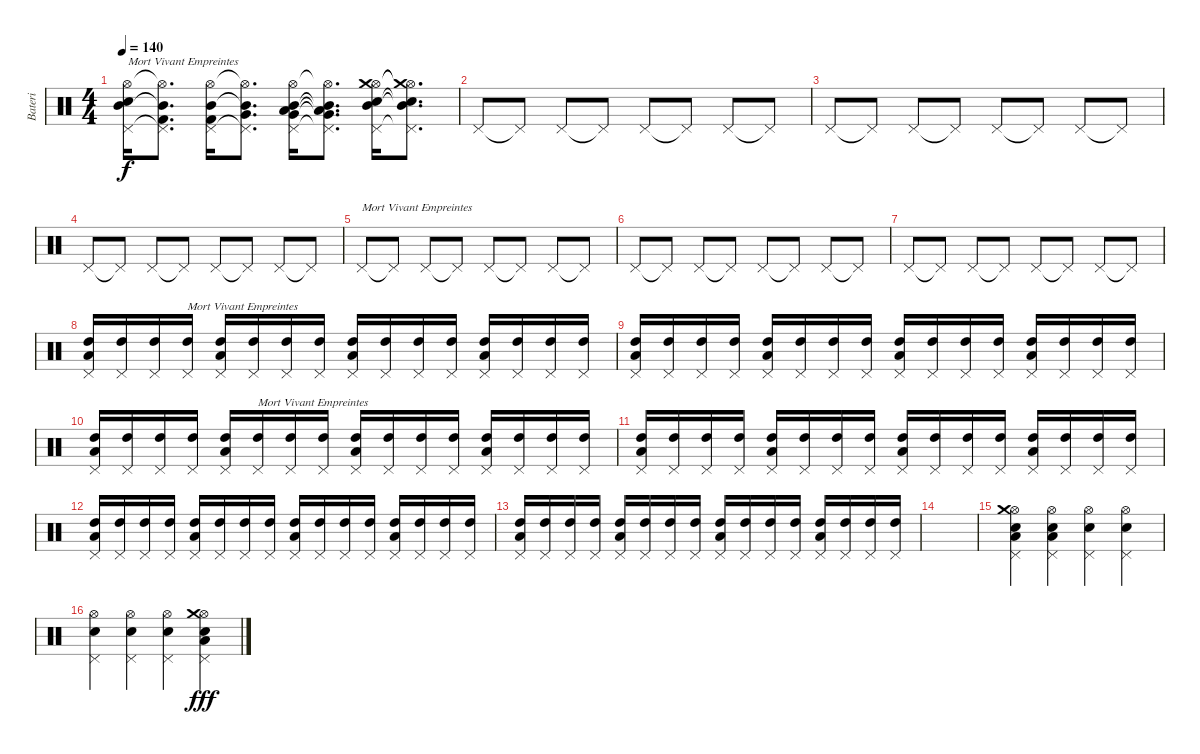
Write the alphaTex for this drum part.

\track ("Bateri" "Bateri") {instrument percussion}
\staff {score}
\articulation defaults
\ts (4 4)
\tempo 140
\clef neutral
\ks c
("Hi-Hat (open)" "Snare (hit) 2" "Mid Tom (hit)" "Pedal Hi-Hat (hit)").16{txt "Mort Vivant Empreintes" dy f} ("Hi-Hat (open)"{t} "Kick (hit) 2" "Mid Tom (hit)"{t} "Pedal Hi-Hat (hit)"{t}).8{d} ("Hi-Hat (open)" "Kick (hit) 2" "Mid Tom (hit)" "Pedal Hi-Hat (hit)").16{beam merge} ("Hi-Hat (open)"{t} "Very Low Tom (hit)" "Mid Tom (hit)"{t} "Pedal Hi-Hat (hit)"{t}).8{d} ("Hi-Hat (open)" "Very Low Tom (hit)" "Mid Tom (hit)" "Low Tom (hit)" "Pedal Hi-Hat (hit)").16{beam merge} ("Hi-Hat (open)"{t} "Very Low Tom (hit)"{t} "Mid Tom (hit)"{t} "Low Tom (hit)"{t} "Pedal Hi-Hat (hit)"{t}).8{d} ("Hi-Hat (open)" "Snare (hit) 2" "Mid Tom (hit)" "Crash medium (hit)" "Pedal Hi-Hat (hit)").16{beam merge} ("Hi-Hat (open)"{t} "Snare (hit) 2"{t} "Mid Tom (hit)"{t} "Crash medium (hit)"{t} "Pedal Hi-Hat (hit)"{t}).8{d} |
"Pedal Hi-Hat (hit)".8 "Pedal Hi-Hat (hit)"{t}.8 "Pedal Hi-Hat (hit)".8 "Pedal Hi-Hat (hit)"{t}.8 "Pedal Hi-Hat (hit)".8 "Pedal Hi-Hat (hit)"{t}.8 "Pedal Hi-Hat (hit)".8 "Pedal Hi-Hat (hit)"{t}.8 |
"Pedal Hi-Hat (hit)".8 "Pedal Hi-Hat (hit)"{t}.8 "Pedal Hi-Hat (hit)".8 "Pedal Hi-Hat (hit)"{t}.8 "Pedal Hi-Hat (hit)".8 "Pedal Hi-Hat (hit)"{t}.8 "Pedal Hi-Hat (hit)".8 "Pedal Hi-Hat (hit)"{t}.8 |
"Pedal Hi-Hat (hit)".8 "Pedal Hi-Hat (hit)"{t}.8 "Pedal Hi-Hat (hit)".8 "Pedal Hi-Hat (hit)"{t}.8 "Pedal Hi-Hat (hit)".8 "Pedal Hi-Hat (hit)"{t}.8 "Pedal Hi-Hat (hit)".8 "Pedal Hi-Hat (hit)"{t}.8 |
"Pedal Hi-Hat (hit)".8{txt "Mort Vivant Empreintes"} "Pedal Hi-Hat (hit)"{t}.8 "Pedal Hi-Hat (hit)".8 "Pedal Hi-Hat (hit)"{t}.8 "Pedal Hi-Hat (hit)".8 "Pedal Hi-Hat (hit)"{t}.8 "Pedal Hi-Hat (hit)".8 "Pedal Hi-Hat (hit)"{t}.8 |
"Pedal Hi-Hat (hit)".8 "Pedal Hi-Hat (hit)"{t}.8 "Pedal Hi-Hat (hit)".8 "Pedal Hi-Hat (hit)"{t}.8 "Pedal Hi-Hat (hit)".8 "Pedal Hi-Hat (hit)"{t}.8 "Pedal Hi-Hat (hit)".8 "Pedal Hi-Hat (hit)"{t}.8 |
"Pedal Hi-Hat (hit)".8 "Pedal Hi-Hat (hit)"{t}.8 "Pedal Hi-Hat (hit)".8 "Pedal Hi-Hat (hit)"{t}.8 "Pedal Hi-Hat (hit)".8 "Pedal Hi-Hat (hit)"{t}.8 "Pedal Hi-Hat (hit)".8 "Pedal Hi-Hat (hit)"{t}.8 |
("High Tom (hit)" "Low Tom (hit)" "Pedal Hi-Hat (hit)").16 ("High Tom (hit)" "Pedal Hi-Hat (hit)").16 ("High Tom (hit)" "Pedal Hi-Hat (hit)").16 ("High Tom (hit)" "Pedal Hi-Hat (hit)").16{txt "Mort Vivant Empreintes"} ("High Tom (hit)" "Low Tom (hit)" "Pedal Hi-Hat (hit)").16 ("High Tom (hit)" "Pedal Hi-Hat (hit)").16 ("High Tom (hit)" "Pedal Hi-Hat (hit)").16 ("High Tom (hit)" "Pedal Hi-Hat (hit)").16 ("High Tom (hit)" "Low Tom (hit)" "Pedal Hi-Hat (hit)").16 ("High Tom (hit)" "Pedal Hi-Hat (hit)").16 ("High Tom (hit)" "Pedal Hi-Hat (hit)").16 ("High Tom (hit)" "Pedal Hi-Hat (hit)").16 ("High Tom (hit)" "Low Tom (hit)" "Pedal Hi-Hat (hit)").16 ("High Tom (hit)" "Pedal Hi-Hat (hit)").16 ("High Tom (hit)" "Pedal Hi-Hat (hit)").16 ("High Tom (hit)" "Pedal Hi-Hat (hit)").16 |
("High Tom (hit)" "Low Tom (hit)" "Pedal Hi-Hat (hit)").16 ("High Tom (hit)" "Pedal Hi-Hat (hit)").16 ("High Tom (hit)" "Pedal Hi-Hat (hit)").16 ("High Tom (hit)" "Pedal Hi-Hat (hit)").16 ("High Tom (hit)" "Low Tom (hit)" "Pedal Hi-Hat (hit)").16 ("High Tom (hit)" "Pedal Hi-Hat (hit)").16 ("High Tom (hit)" "Pedal Hi-Hat (hit)").16 ("High Tom (hit)" "Pedal Hi-Hat (hit)").16 ("High Tom (hit)" "Low Tom (hit)" "Pedal Hi-Hat (hit)").16 ("High Tom (hit)" "Pedal Hi-Hat (hit)").16 ("High Tom (hit)" "Pedal Hi-Hat (hit)").16 ("High Tom (hit)" "Pedal Hi-Hat (hit)").16 ("High Tom (hit)" "Low Tom (hit)" "Pedal Hi-Hat (hit)").16 ("High Tom (hit)" "Pedal Hi-Hat (hit)").16 ("High Tom (hit)" "Pedal Hi-Hat (hit)").16 ("High Tom (hit)" "Pedal Hi-Hat (hit)").16 |
("High Tom (hit)" "Low Tom (hit)" "Pedal Hi-Hat (hit)").16 ("High Tom (hit)" "Pedal Hi-Hat (hit)").16 ("High Tom (hit)" "Pedal Hi-Hat (hit)").16 ("High Tom (hit)" "Pedal Hi-Hat (hit)").16 ("High Tom (hit)" "Low Tom (hit)" "Pedal Hi-Hat (hit)").16 ("High Tom (hit)" "Pedal Hi-Hat (hit)").16{txt "Mort Vivant Empreintes"} ("High Tom (hit)" "Pedal Hi-Hat (hit)").16 ("High Tom (hit)" "Pedal Hi-Hat (hit)").16 ("High Tom (hit)" "Low Tom (hit)" "Pedal Hi-Hat (hit)").16 ("High Tom (hit)" "Pedal Hi-Hat (hit)").16 ("High Tom (hit)" "Pedal Hi-Hat (hit)").16 ("High Tom (hit)" "Pedal Hi-Hat (hit)").16 ("High Tom (hit)" "Low Tom (hit)" "Pedal Hi-Hat (hit)").16 ("High Tom (hit)" "Pedal Hi-Hat (hit)").16 ("High Tom (hit)" "Pedal Hi-Hat (hit)").16 ("High Tom (hit)" "Pedal Hi-Hat (hit)").16 |
("High Tom (hit)" "Low Tom (hit)" "Pedal Hi-Hat (hit)").16 ("High Tom (hit)" "Pedal Hi-Hat (hit)").16 ("High Tom (hit)" "Pedal Hi-Hat (hit)").16 ("High Tom (hit)" "Pedal Hi-Hat (hit)").16 ("High Tom (hit)" "Low Tom (hit)" "Pedal Hi-Hat (hit)").16 ("High Tom (hit)" "Pedal Hi-Hat (hit)").16 ("High Tom (hit)" "Pedal Hi-Hat (hit)").16 ("High Tom (hit)" "Pedal Hi-Hat (hit)").16 ("High Tom (hit)" "Low Tom (hit)" "Pedal Hi-Hat (hit)").16 ("High Tom (hit)" "Pedal Hi-Hat (hit)").16 ("High Tom (hit)" "Pedal Hi-Hat (hit)").16 ("High Tom (hit)" "Pedal Hi-Hat (hit)").16 ("High Tom (hit)" "Low Tom (hit)" "Pedal Hi-Hat (hit)").16 ("High Tom (hit)" "Pedal Hi-Hat (hit)").16 ("High Tom (hit)" "Pedal Hi-Hat (hit)").16 ("High Tom (hit)" "Pedal Hi-Hat (hit)").16 |
("High Tom (hit)" "Low Tom (hit)" "Pedal Hi-Hat (hit)").16 ("High Tom (hit)" "Pedal Hi-Hat (hit)").16 ("High Tom (hit)" "Pedal Hi-Hat (hit)").16 ("High Tom (hit)" "Pedal Hi-Hat (hit)").16 ("High Tom (hit)" "Low Tom (hit)" "Pedal Hi-Hat (hit)").16 ("High Tom (hit)" "Pedal Hi-Hat (hit)").16 ("High Tom (hit)" "Pedal Hi-Hat (hit)").16 ("High Tom (hit)" "Pedal Hi-Hat (hit)").16 ("High Tom (hit)" "Low Tom (hit)" "Pedal Hi-Hat (hit)").16 ("High Tom (hit)" "Pedal Hi-Hat (hit)").16 ("High Tom (hit)" "Pedal Hi-Hat (hit)").16 ("High Tom (hit)" "Pedal Hi-Hat (hit)").16 ("High Tom (hit)" "Low Tom (hit)" "Pedal Hi-Hat (hit)").16 ("High Tom (hit)" "Pedal Hi-Hat (hit)").16 ("High Tom (hit)" "Pedal Hi-Hat (hit)").16 ("High Tom (hit)" "Pedal Hi-Hat (hit)").16 |
("High Tom (hit)" "Low Tom (hit)" "Pedal Hi-Hat (hit)").16 ("High Tom (hit)" "Pedal Hi-Hat (hit)").16 ("High Tom (hit)" "Pedal Hi-Hat (hit)").16 ("High Tom (hit)" "Pedal Hi-Hat (hit)").16 ("High Tom (hit)" "Low Tom (hit)" "Pedal Hi-Hat (hit)").16 ("High Tom (hit)" "Pedal Hi-Hat (hit)").16 ("High Tom (hit)" "Pedal Hi-Hat (hit)").16 ("High Tom (hit)" "Pedal Hi-Hat (hit)").16 ("High Tom (hit)" "Low Tom (hit)" "Pedal Hi-Hat (hit)").16 ("High Tom (hit)" "Pedal Hi-Hat (hit)").16 ("High Tom (hit)" "Pedal Hi-Hat (hit)").16 ("High Tom (hit)" "Pedal Hi-Hat (hit)").16 ("High Tom (hit)" "Low Tom (hit)" "Pedal Hi-Hat (hit)").16 ("High Tom (hit)" "Pedal Hi-Hat (hit)").16 ("High Tom (hit)" "Pedal Hi-Hat (hit)").16 ("High Tom (hit)" "Pedal Hi-Hat (hit)").16 |
|
("Hi-Hat (open)" "Low Tom (hit)" "Snare (hit) 2" "Crash medium (hit)" "Pedal Hi-Hat (hit)").4 ("Hi-Hat (open)" "Low Tom (hit)" "Snare (hit) 2" "Pedal Hi-Hat (hit)").4 ("Hi-Hat (open)" "Snare (hit) 2" "Pedal Hi-Hat (hit)").4 ("Hi-Hat (open)" "Snare (hit) 2" "Pedal Hi-Hat (hit)").4 |
("Hi-Hat (open)" "Snare (hit) 2" "Pedal Hi-Hat (hit)").4 ("Hi-Hat (open)" "Snare (hit) 2" "Pedal Hi-Hat (hit)").4 ("Hi-Hat (open)" "Snare (hit) 2" "Pedal Hi-Hat (hit)").4 ("Hi-Hat (open)" "Low Tom (hit)" "Snare (hit) 2" "Crash medium (hit)" "Pedal Hi-Hat (hit)").4{dy fff}
